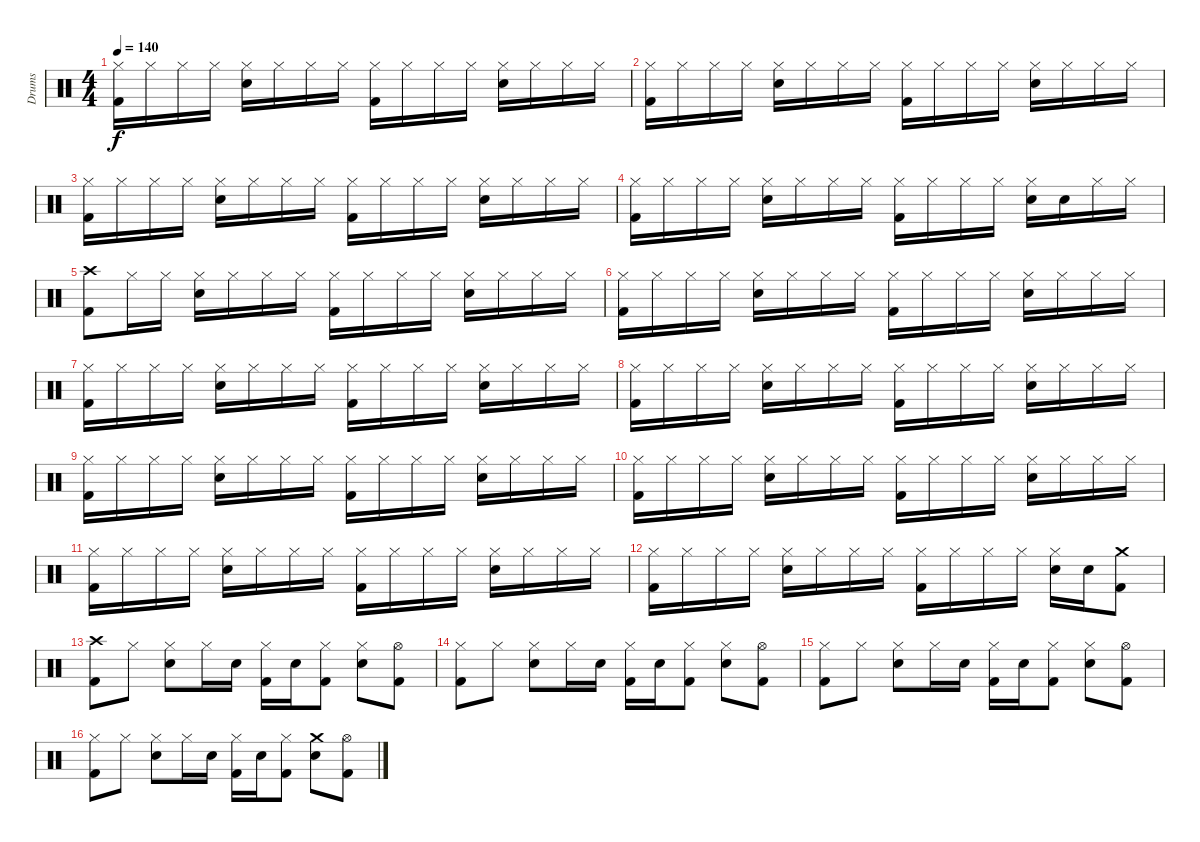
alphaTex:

\track ("Drums" "Drums") {instrument percussion}
\staff {score}
\articulation defaults
\ts (4 4)
\tempo 140
\clef neutral
\ks c
("Hi-Hat (closed)" "Kick (hit) 2").16{dy f} "Hi-Hat (closed)".16 "Hi-Hat (closed)".16 "Hi-Hat (closed)".16 ("Hi-Hat (closed)" "Electric Snare (hit)").16 "Hi-Hat (closed)".16 "Hi-Hat (closed)".16 "Hi-Hat (closed)".16 ("Hi-Hat (closed)" "Kick (hit) 2").16 "Hi-Hat (closed)".16 "Hi-Hat (closed)".16 "Hi-Hat (closed)".16 ("Hi-Hat (closed)" "Electric Snare (hit)").16 "Hi-Hat (closed)".16 "Hi-Hat (closed)".16 "Hi-Hat (closed)".16 |
("Hi-Hat (closed)" "Kick (hit) 2").16 "Hi-Hat (closed)".16 "Hi-Hat (closed)".16 "Hi-Hat (closed)".16 ("Hi-Hat (closed)" "Electric Snare (hit)").16 "Hi-Hat (closed)".16 "Hi-Hat (closed)".16 "Hi-Hat (closed)".16 ("Hi-Hat (closed)" "Kick (hit) 2").16 "Hi-Hat (closed)".16 "Hi-Hat (closed)".16 "Hi-Hat (closed)".16 ("Hi-Hat (closed)" "Electric Snare (hit)").16 "Hi-Hat (closed)".16 "Hi-Hat (closed)".16 "Hi-Hat (closed)".16 |
("Hi-Hat (closed)" "Kick (hit) 2").16 "Hi-Hat (closed)".16 "Hi-Hat (closed)".16 "Hi-Hat (closed)".16 ("Hi-Hat (closed)" "Electric Snare (hit)").16 "Hi-Hat (closed)".16 "Hi-Hat (closed)".16 "Hi-Hat (closed)".16 ("Hi-Hat (closed)" "Kick (hit) 2").16 "Hi-Hat (closed)".16 "Hi-Hat (closed)".16 "Hi-Hat (closed)".16 ("Hi-Hat (closed)" "Electric Snare (hit)").16 "Hi-Hat (closed)".16 "Hi-Hat (closed)".16 "Hi-Hat (closed)".16 |
("Hi-Hat (closed)" "Kick (hit) 2").16 "Hi-Hat (closed)".16 "Hi-Hat (closed)".16 "Hi-Hat (closed)".16 ("Hi-Hat (closed)" "Electric Snare (hit)").16 "Hi-Hat (closed)".16 "Hi-Hat (closed)".16 "Hi-Hat (closed)".16 ("Hi-Hat (closed)" "Kick (hit) 2").16 "Hi-Hat (closed)".16 "Hi-Hat (closed)".16 "Hi-Hat (closed)".16 ("Hi-Hat (closed)" "Electric Snare (hit)").16 "Electric Snare (hit)".16 "Hi-Hat (closed)".16 "Hi-Hat (closed)".16 |
("Crash high (hit)" "Kick (hit) 2").8 "Hi-Hat (closed)".16 "Hi-Hat (closed)".16 ("Hi-Hat (closed)" "Electric Snare (hit)").16 "Hi-Hat (closed)".16 "Hi-Hat (closed)".16 "Hi-Hat (closed)".16 ("Hi-Hat (closed)" "Kick (hit) 2").16 "Hi-Hat (closed)".16 "Hi-Hat (closed)".16 "Hi-Hat (closed)".16 ("Hi-Hat (closed)" "Electric Snare (hit)").16 "Hi-Hat (closed)".16 "Hi-Hat (closed)".16 "Hi-Hat (closed)".16 |
("Hi-Hat (closed)" "Kick (hit) 2").16 "Hi-Hat (closed)".16 "Hi-Hat (closed)".16 "Hi-Hat (closed)".16 ("Hi-Hat (closed)" "Electric Snare (hit)").16 "Hi-Hat (closed)".16 "Hi-Hat (closed)".16 "Hi-Hat (closed)".16 ("Hi-Hat (closed)" "Kick (hit) 2").16 "Hi-Hat (closed)".16 "Hi-Hat (closed)".16 "Hi-Hat (closed)".16 ("Hi-Hat (closed)" "Electric Snare (hit)").16 "Hi-Hat (closed)".16 "Hi-Hat (closed)".16 "Hi-Hat (closed)".16 |
("Hi-Hat (closed)" "Kick (hit) 2").16 "Hi-Hat (closed)".16 "Hi-Hat (closed)".16 "Hi-Hat (closed)".16 ("Hi-Hat (closed)" "Electric Snare (hit)").16 "Hi-Hat (closed)".16 "Hi-Hat (closed)".16 "Hi-Hat (closed)".16 ("Hi-Hat (closed)" "Kick (hit) 2").16 "Hi-Hat (closed)".16 "Hi-Hat (closed)".16 "Hi-Hat (closed)".16 ("Hi-Hat (closed)" "Electric Snare (hit)").16 "Hi-Hat (closed)".16 "Hi-Hat (closed)".16 "Hi-Hat (closed)".16 |
("Hi-Hat (closed)" "Kick (hit) 2").16 "Hi-Hat (closed)".16 "Hi-Hat (closed)".16 "Hi-Hat (closed)".16 ("Hi-Hat (closed)" "Electric Snare (hit)").16 "Hi-Hat (closed)".16 "Hi-Hat (closed)".16 "Hi-Hat (closed)".16 ("Hi-Hat (closed)" "Kick (hit) 2").16 "Hi-Hat (closed)".16 "Hi-Hat (closed)".16 "Hi-Hat (closed)".16 ("Hi-Hat (closed)" "Electric Snare (hit)").16 "Hi-Hat (closed)".16 "Hi-Hat (closed)".16 "Hi-Hat (closed)".16 |
("Hi-Hat (closed)" "Kick (hit) 2").16 "Hi-Hat (closed)".16 "Hi-Hat (closed)".16 "Hi-Hat (closed)".16 ("Hi-Hat (closed)" "Electric Snare (hit)").16 "Hi-Hat (closed)".16 "Hi-Hat (closed)".16 "Hi-Hat (closed)".16 ("Hi-Hat (closed)" "Kick (hit) 2").16 "Hi-Hat (closed)".16 "Hi-Hat (closed)".16 "Hi-Hat (closed)".16 ("Hi-Hat (closed)" "Electric Snare (hit)").16 "Hi-Hat (closed)".16 "Hi-Hat (closed)".16 "Hi-Hat (closed)".16 |
("Hi-Hat (closed)" "Kick (hit) 2").16 "Hi-Hat (closed)".16 "Hi-Hat (closed)".16 "Hi-Hat (closed)".16 ("Hi-Hat (closed)" "Electric Snare (hit)").16 "Hi-Hat (closed)".16 "Hi-Hat (closed)".16 "Hi-Hat (closed)".16 ("Hi-Hat (closed)" "Kick (hit) 2").16 "Hi-Hat (closed)".16 "Hi-Hat (closed)".16 "Hi-Hat (closed)".16 ("Hi-Hat (closed)" "Electric Snare (hit)").16 "Hi-Hat (closed)".16 "Hi-Hat (closed)".16 "Hi-Hat (closed)".16 |
("Hi-Hat (closed)" "Kick (hit) 2").16 "Hi-Hat (closed)".16 "Hi-Hat (closed)".16 "Hi-Hat (closed)".16 ("Hi-Hat (closed)" "Electric Snare (hit)").16 "Hi-Hat (closed)".16 "Hi-Hat (closed)".16 "Hi-Hat (closed)".16 ("Hi-Hat (closed)" "Kick (hit) 2").16 "Hi-Hat (closed)".16 "Hi-Hat (closed)".16 "Hi-Hat (closed)".16 ("Hi-Hat (closed)" "Electric Snare (hit)").16 "Hi-Hat (closed)".16 "Hi-Hat (closed)".16 "Hi-Hat (closed)".16 |
("Hi-Hat (closed)" "Kick (hit) 2").16 "Hi-Hat (closed)".16 "Hi-Hat (closed)".16 "Hi-Hat (closed)".16 ("Hi-Hat (closed)" "Electric Snare (hit)").16 "Hi-Hat (closed)".16 "Hi-Hat (closed)".16 "Hi-Hat (closed)".16 ("Hi-Hat (closed)" "Kick (hit) 2").16 "Hi-Hat (closed)".16 "Hi-Hat (closed)".16 "Hi-Hat (closed)".16 ("Hi-Hat (closed)" "Electric Snare (hit)").16 "Electric Snare (hit)".16 ("Crash medium (hit)" "Kick (hit) 2").8 |
("Crash high (hit)" "Kick (hit) 2").8 "Hi-Hat (closed)".8 ("Hi-Hat (closed)" "Electric Snare (hit)").8 "Hi-Hat (closed)".16 "Electric Snare (hit)".16 ("Hi-Hat (closed)" "Kick (hit) 2").16 "Electric Snare (hit)".16 ("Hi-Hat (closed)" "Kick (hit) 2").8 ("Hi-Hat (closed)" "Electric Snare (hit)").8 ("Hi-Hat (open)" "Kick (hit) 2").8 |
("Hi-Hat (closed)" "Kick (hit) 2").8 "Hi-Hat (closed)".8 ("Hi-Hat (closed)" "Electric Snare (hit)").8 "Hi-Hat (closed)".16 "Electric Snare (hit)".16 ("Hi-Hat (closed)" "Kick (hit) 2").16 "Electric Snare (hit)".16 ("Hi-Hat (closed)" "Kick (hit) 2").8 ("Hi-Hat (closed)" "Electric Snare (hit)").8 ("Hi-Hat (open)" "Kick (hit) 2").8 |
("Hi-Hat (closed)" "Kick (hit) 2").8 "Hi-Hat (closed)".8 ("Hi-Hat (closed)" "Electric Snare (hit)").8 "Hi-Hat (closed)".16 "Electric Snare (hit)".16 ("Hi-Hat (closed)" "Kick (hit) 2").16 "Electric Snare (hit)".16 ("Hi-Hat (closed)" "Kick (hit) 2").8 ("Hi-Hat (closed)" "Electric Snare (hit)").8 ("Hi-Hat (open)" "Kick (hit) 2").8 |
("Hi-Hat (closed)" "Kick (hit) 2").8 "Hi-Hat (closed)".8 ("Hi-Hat (closed)" "Electric Snare (hit)").8 "Hi-Hat (closed)".16 "Electric Snare (hit)".16 ("Hi-Hat (closed)" "Kick (hit) 2").16 "Electric Snare (hit)".16 ("Hi-Hat (closed)" "Kick (hit) 2").8 ("Crash medium (hit)" "Electric Snare (hit)").8 ("Hi-Hat (open)" "Kick (hit) 2").8
